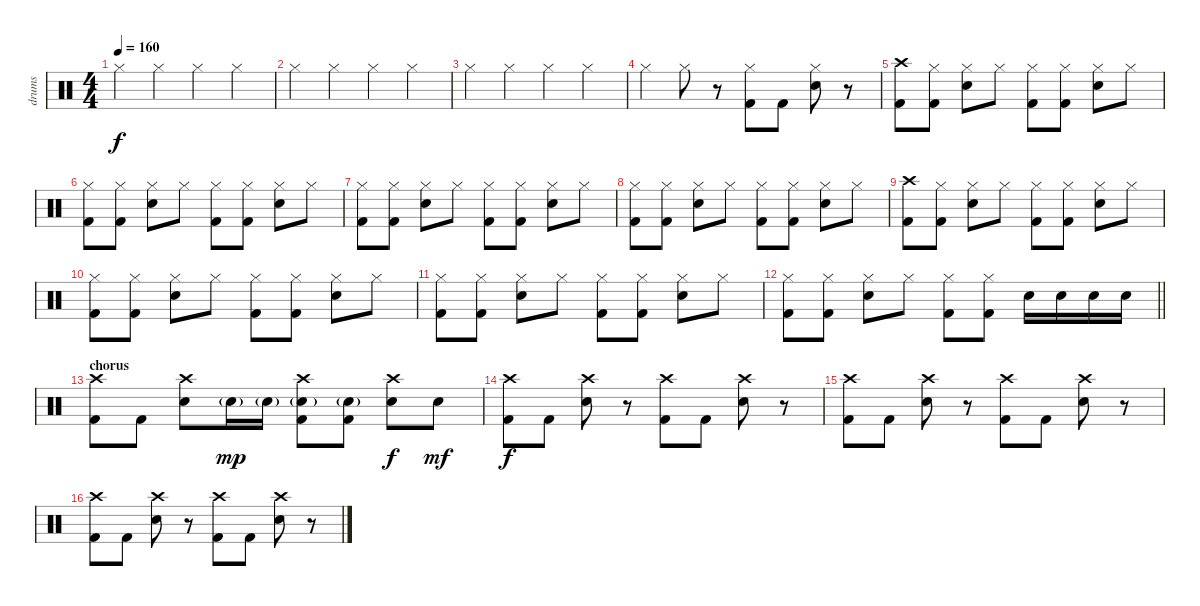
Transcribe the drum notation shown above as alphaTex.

\track ("drums" "drums") {instrument percussion}
\staff {score}
\articulation defaults
\ts (4 4)
\tempo 160
\clef neutral
\ks c "Hi-Hat (closed)".4{dy f} "Hi-Hat (closed)".4 "Hi-Hat (closed)".4 "Hi-Hat (closed)".4
|
"Hi-Hat (closed)".4 "Hi-Hat (closed)".4 "Hi-Hat (closed)".4 "Hi-Hat (closed)".4 |
"Hi-Hat (closed)".4 "Hi-Hat (closed)".4 "Hi-Hat (closed)".4 "Hi-Hat (closed)".4 |
"Hi-Hat (closed)".4 "Hi-Hat (closed)".8 r.8 ("Hi-Hat (closed)" "Kick (hit) 2").8 "Kick (hit) 2".8 ("Hi-Hat (closed)" "Electric Snare (hit)").8 r.8 |
("Crash high (hit)" "Kick (hit) 2").8 ("Hi-Hat (closed)" "Kick (hit) 2").8 ("Hi-Hat (closed)" "Electric Snare (hit)").8 "Hi-Hat (closed)".8 ("Hi-Hat (closed)" "Kick (hit) 2").8 ("Hi-Hat (closed)" "Kick (hit) 2").8 ("Hi-Hat (closed)" "Electric Snare (hit)").8 "Hi-Hat (closed)".8 |
("Hi-Hat (closed)" "Kick (hit) 2").8 ("Hi-Hat (closed)" "Kick (hit) 2").8 ("Hi-Hat (closed)" "Electric Snare (hit)").8 "Hi-Hat (closed)".8 ("Hi-Hat (closed)" "Kick (hit) 2").8 ("Hi-Hat (closed)" "Kick (hit) 2").8 ("Hi-Hat (closed)" "Electric Snare (hit)").8 "Hi-Hat (closed)".8 |
("Hi-Hat (closed)" "Kick (hit) 2").8 ("Hi-Hat (closed)" "Kick (hit) 2").8 ("Hi-Hat (closed)" "Electric Snare (hit)").8 "Hi-Hat (closed)".8 ("Hi-Hat (closed)" "Kick (hit) 2").8 ("Hi-Hat (closed)" "Kick (hit) 2").8 ("Hi-Hat (closed)" "Electric Snare (hit)").8 "Hi-Hat (closed)".8 |
("Hi-Hat (closed)" "Kick (hit) 2").8 ("Hi-Hat (closed)" "Kick (hit) 2").8 ("Hi-Hat (closed)" "Electric Snare (hit)").8 "Hi-Hat (closed)".8 ("Hi-Hat (closed)" "Kick (hit) 2").8 ("Hi-Hat (closed)" "Kick (hit) 2").8 ("Hi-Hat (closed)" "Electric Snare (hit)").8 "Hi-Hat (closed)".8 |
("Crash high (hit)" "Kick (hit) 2").8 ("Hi-Hat (closed)" "Kick (hit) 2").8 ("Hi-Hat (closed)" "Electric Snare (hit)").8 "Hi-Hat (closed)".8 ("Hi-Hat (closed)" "Kick (hit) 2").8 ("Hi-Hat (closed)" "Kick (hit) 2").8 ("Hi-Hat (closed)" "Electric Snare (hit)").8 "Hi-Hat (closed)".8 |
("Hi-Hat (closed)" "Kick (hit) 2").8 ("Hi-Hat (closed)" "Kick (hit) 2").8 ("Hi-Hat (closed)" "Electric Snare (hit)").8 "Hi-Hat (closed)".8 ("Hi-Hat (closed)" "Kick (hit) 2").8 ("Hi-Hat (closed)" "Kick (hit) 2").8 ("Hi-Hat (closed)" "Electric Snare (hit)").8 "Hi-Hat (closed)".8 |
("Hi-Hat (closed)" "Kick (hit) 2").8 ("Hi-Hat (closed)" "Kick (hit) 2").8 ("Hi-Hat (closed)" "Electric Snare (hit)").8 "Hi-Hat (closed)".8 ("Hi-Hat (closed)" "Kick (hit) 2").8 ("Hi-Hat (closed)" "Kick (hit) 2").8 ("Hi-Hat (closed)" "Electric Snare (hit)").8 "Hi-Hat (closed)".8 |
\barLineRight lightlight
("Hi-Hat (closed)" "Kick (hit) 2").8 ("Hi-Hat (closed)" "Kick (hit) 2").8 ("Hi-Hat (closed)" "Electric Snare (hit)").8 "Hi-Hat (closed)".8 ("Hi-Hat (closed)" "Kick (hit) 2").8 ("Hi-Hat (closed)" "Kick (hit) 2").8 "Electric Snare (hit)".16 "Electric Snare (hit)".16 "Electric Snare (hit)".16 "Electric Snare (hit)".16 |
\section ("" "chorus")
("Crash high (hit)" "Kick (hit) 2").8 "Kick (hit) 2".8 ("Crash high (hit)" "Electric Snare (hit)").8 "Electric Snare (hit)"{g}.16{dy mp} "Electric Snare (hit)"{g}.16 ("Crash high (hit)" "Electric Snare (hit)"{g} "Kick (hit) 2").8 ("Electric Snare (hit)"{g} "Kick (hit) 2").8 ("Crash high (hit)" "Electric Snare (hit)").8{dy f} "Electric Snare (hit)".8{dy mf} |
("Crash high (hit)" "Kick (hit) 2").8{dy f} "Kick (hit) 2".8 ("Crash high (hit)" "Electric Snare (hit)").8 r.8 ("Crash high (hit)" "Kick (hit) 2").8 "Kick (hit) 2".8 ("Crash high (hit)" "Electric Snare (hit)").8 r.8 |
("Crash high (hit)" "Kick (hit) 2").8 "Kick (hit) 2".8 ("Crash high (hit)" "Electric Snare (hit)").8 r.8 ("Crash high (hit)" "Kick (hit) 2").8 "Kick (hit) 2".8 ("Crash high (hit)" "Electric Snare (hit)").8 r.8 |
("Crash high (hit)" "Kick (hit) 2").8 "Kick (hit) 2".8 ("Crash high (hit)" "Electric Snare (hit)").8 r.8 ("Crash high (hit)" "Kick (hit) 2").8 "Kick (hit) 2".8 ("Crash high (hit)" "Electric Snare (hit)").8 r.8
